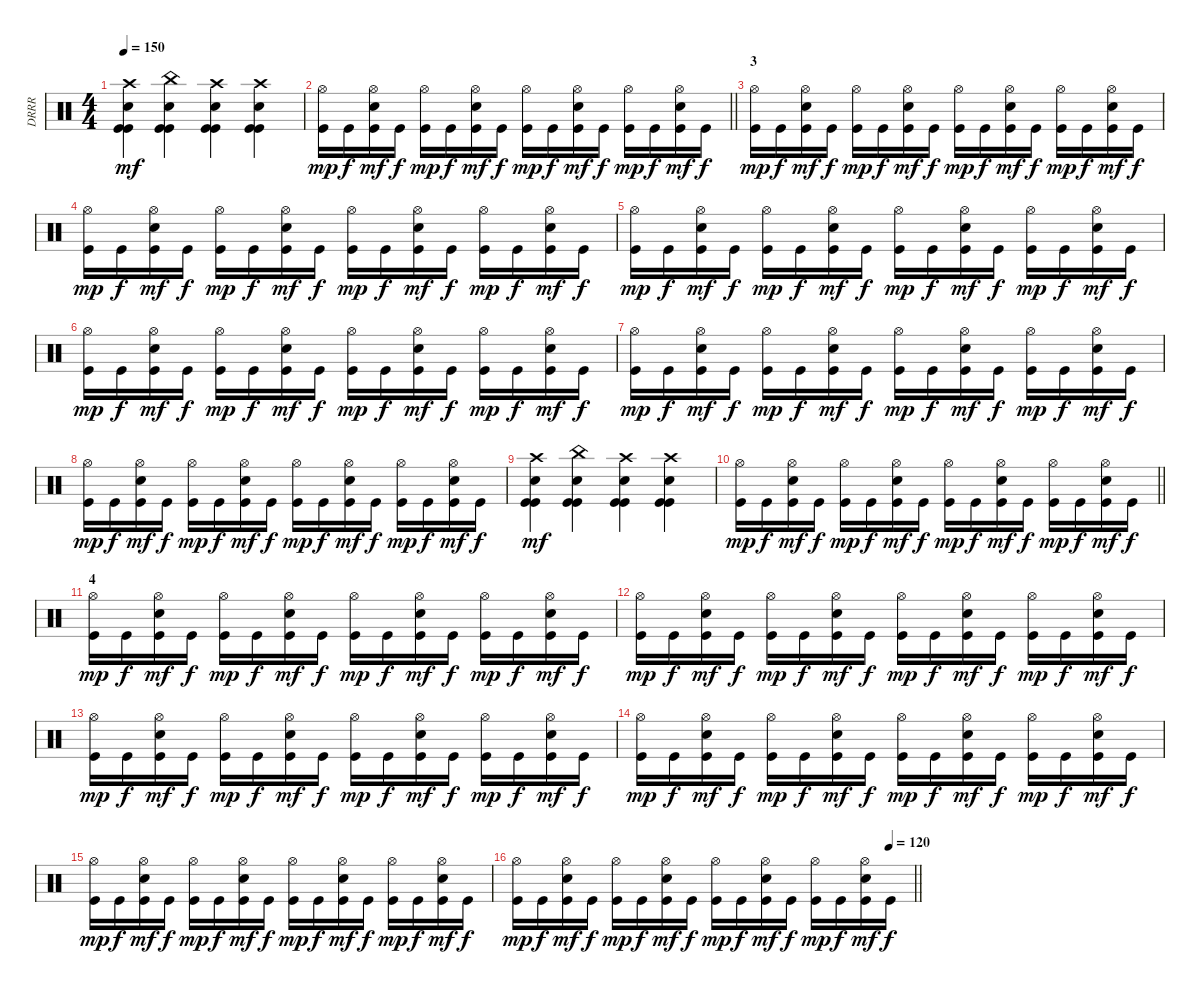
\track ("DRRR" "DRRR") {instrument percussion}
\staff {score}
\articulation defaults
\ts (4 4)
\tempo 150
\clef neutral
\ks c
("Crash high (hit)" "Snare (hit) 2" "Kick (hit)" "Kick (hit)").4{dy mf} ("China (hit)" "Snare (hit) 2" "Kick (hit)" "Kick (hit)").4 ("Crash high (hit)" "Snare (hit) 2" "Kick (hit)" "Kick (hit)").4 ("Crash high (hit)" "Snare (hit) 2" "Kick (hit)" "Kick (hit)").4 |
\barLineRight lightlight
("Hi-Hat (open)" "Kick (hit)").16{dy mp} "Kick (hit)".16{dy f} ("Hi-Hat (open)" "Snare (hit) 2" "Kick (hit)").16{dy mf} "Kick (hit)".16{dy f} ("Hi-Hat (open)" "Kick (hit)").16{dy mp} "Kick (hit)".16{dy f} ("Hi-Hat (open)" "Snare (hit) 2" "Kick (hit)").16{dy mf} "Kick (hit)".16{dy f} ("Hi-Hat (open)" "Kick (hit)").16{dy mp} "Kick (hit)".16{dy f} ("Hi-Hat (open)" "Snare (hit) 2" "Kick (hit)").16{dy mf} "Kick (hit)".16{dy f} ("Hi-Hat (open)" "Kick (hit)").16{dy mp} "Kick (hit)".16{dy f} ("Hi-Hat (open)" "Snare (hit) 2" "Kick (hit)").16{dy mf} "Kick (hit)".16{dy f} |
\section ("" "3")
("Hi-Hat (open)" "Kick (hit)").16{dy mp} "Kick (hit)".16{dy f} ("Hi-Hat (open)" "Snare (hit) 2" "Kick (hit)").16{dy mf} "Kick (hit)".16{dy f} ("Hi-Hat (open)" "Kick (hit)").16{dy mp} "Kick (hit)".16{dy f} ("Hi-Hat (open)" "Snare (hit) 2" "Kick (hit)").16{dy mf} "Kick (hit)".16{dy f} ("Hi-Hat (open)" "Kick (hit)").16{dy mp} "Kick (hit)".16{dy f} ("Hi-Hat (open)" "Snare (hit) 2" "Kick (hit)").16{dy mf} "Kick (hit)".16{dy f} ("Hi-Hat (open)" "Kick (hit)").16{dy mp} "Kick (hit)".16{dy f} ("Hi-Hat (open)" "Snare (hit) 2" "Kick (hit)").16{dy mf} "Kick (hit)".16{dy f} |
("Hi-Hat (open)" "Kick (hit)").16{dy mp} "Kick (hit)".16{dy f} ("Hi-Hat (open)" "Snare (hit) 2" "Kick (hit)").16{dy mf} "Kick (hit)".16{dy f} ("Hi-Hat (open)" "Kick (hit)").16{dy mp} "Kick (hit)".16{dy f} ("Hi-Hat (open)" "Snare (hit) 2" "Kick (hit)").16{dy mf} "Kick (hit)".16{dy f} ("Hi-Hat (open)" "Kick (hit)").16{dy mp} "Kick (hit)".16{dy f} ("Hi-Hat (open)" "Snare (hit) 2" "Kick (hit)").16{dy mf} "Kick (hit)".16{dy f} ("Hi-Hat (open)" "Kick (hit)").16{dy mp} "Kick (hit)".16{dy f} ("Hi-Hat (open)" "Snare (hit) 2" "Kick (hit)").16{dy mf} "Kick (hit)".16{dy f} |
("Hi-Hat (open)" "Kick (hit)").16{dy mp} "Kick (hit)".16{dy f} ("Hi-Hat (open)" "Snare (hit) 2" "Kick (hit)").16{dy mf} "Kick (hit)".16{dy f} ("Hi-Hat (open)" "Kick (hit)").16{dy mp} "Kick (hit)".16{dy f} ("Hi-Hat (open)" "Snare (hit) 2" "Kick (hit)").16{dy mf} "Kick (hit)".16{dy f} ("Hi-Hat (open)" "Kick (hit)").16{dy mp} "Kick (hit)".16{dy f} ("Hi-Hat (open)" "Snare (hit) 2" "Kick (hit)").16{dy mf} "Kick (hit)".16{dy f} ("Hi-Hat (open)" "Kick (hit)").16{dy mp} "Kick (hit)".16{dy f} ("Hi-Hat (open)" "Snare (hit) 2" "Kick (hit)").16{dy mf} "Kick (hit)".16{dy f} |
("Hi-Hat (open)" "Kick (hit)").16{dy mp} "Kick (hit)".16{dy f} ("Hi-Hat (open)" "Snare (hit) 2" "Kick (hit)").16{dy mf} "Kick (hit)".16{dy f} ("Hi-Hat (open)" "Kick (hit)").16{dy mp} "Kick (hit)".16{dy f} ("Hi-Hat (open)" "Snare (hit) 2" "Kick (hit)").16{dy mf} "Kick (hit)".16{dy f} ("Hi-Hat (open)" "Kick (hit)").16{dy mp} "Kick (hit)".16{dy f} ("Hi-Hat (open)" "Snare (hit) 2" "Kick (hit)").16{dy mf} "Kick (hit)".16{dy f} ("Hi-Hat (open)" "Kick (hit)").16{dy mp} "Kick (hit)".16{dy f} ("Hi-Hat (open)" "Snare (hit) 2" "Kick (hit)").16{dy mf} "Kick (hit)".16{dy f} |
("Hi-Hat (open)" "Kick (hit)").16{dy mp} "Kick (hit)".16{dy f} ("Hi-Hat (open)" "Snare (hit) 2" "Kick (hit)").16{dy mf} "Kick (hit)".16{dy f} ("Hi-Hat (open)" "Kick (hit)").16{dy mp} "Kick (hit)".16{dy f} ("Hi-Hat (open)" "Snare (hit) 2" "Kick (hit)").16{dy mf} "Kick (hit)".16{dy f} ("Hi-Hat (open)" "Kick (hit)").16{dy mp} "Kick (hit)".16{dy f} ("Hi-Hat (open)" "Snare (hit) 2" "Kick (hit)").16{dy mf} "Kick (hit)".16{dy f} ("Hi-Hat (open)" "Kick (hit)").16{dy mp} "Kick (hit)".16{dy f} ("Hi-Hat (open)" "Snare (hit) 2" "Kick (hit)").16{dy mf} "Kick (hit)".16{dy f} |
("Hi-Hat (open)" "Kick (hit)").16{dy mp} "Kick (hit)".16{dy f} ("Hi-Hat (open)" "Snare (hit) 2" "Kick (hit)").16{dy mf} "Kick (hit)".16{dy f} ("Hi-Hat (open)" "Kick (hit)").16{dy mp} "Kick (hit)".16{dy f} ("Hi-Hat (open)" "Snare (hit) 2" "Kick (hit)").16{dy mf} "Kick (hit)".16{dy f} ("Hi-Hat (open)" "Kick (hit)").16{dy mp} "Kick (hit)".16{dy f} ("Hi-Hat (open)" "Snare (hit) 2" "Kick (hit)").16{dy mf} "Kick (hit)".16{dy f} ("Hi-Hat (open)" "Kick (hit)").16{dy mp} "Kick (hit)".16{dy f} ("Hi-Hat (open)" "Snare (hit) 2" "Kick (hit)").16{dy mf} "Kick (hit)".16{dy f} |
("Crash high (hit)" "Snare (hit) 2" "Kick (hit)" "Kick (hit)").4{dy mf} ("China (hit)" "Snare (hit) 2" "Kick (hit)" "Kick (hit)").4 ("Crash high (hit)" "Snare (hit) 2" "Kick (hit)" "Kick (hit)").4 ("Crash high (hit)" "Snare (hit) 2" "Kick (hit)" "Kick (hit)").4 |
\barLineRight lightlight
("Hi-Hat (open)" "Kick (hit)").16{dy mp} "Kick (hit)".16{dy f} ("Hi-Hat (open)" "Snare (hit) 2" "Kick (hit)").16{dy mf} "Kick (hit)".16{dy f} ("Hi-Hat (open)" "Kick (hit)").16{dy mp} "Kick (hit)".16{dy f} ("Hi-Hat (open)" "Snare (hit) 2" "Kick (hit)").16{dy mf} "Kick (hit)".16{dy f} ("Hi-Hat (open)" "Kick (hit)").16{dy mp} "Kick (hit)".16{dy f} ("Hi-Hat (open)" "Snare (hit) 2" "Kick (hit)").16{dy mf} "Kick (hit)".16{dy f} ("Hi-Hat (open)" "Kick (hit)").16{dy mp} "Kick (hit)".16{dy f} ("Hi-Hat (open)" "Snare (hit) 2" "Kick (hit)").16{dy mf} "Kick (hit)".16{dy f} |
\section ("" "4")
("Hi-Hat (open)" "Kick (hit)").16{dy mp} "Kick (hit)".16{dy f} ("Hi-Hat (open)" "Snare (hit) 2" "Kick (hit)").16{dy mf} "Kick (hit)".16{dy f} ("Hi-Hat (open)" "Kick (hit)").16{dy mp} "Kick (hit)".16{dy f} ("Hi-Hat (open)" "Snare (hit) 2" "Kick (hit)").16{dy mf} "Kick (hit)".16{dy f} ("Hi-Hat (open)" "Kick (hit)").16{dy mp} "Kick (hit)".16{dy f} ("Hi-Hat (open)" "Snare (hit) 2" "Kick (hit)").16{dy mf} "Kick (hit)".16{dy f} ("Hi-Hat (open)" "Kick (hit)").16{dy mp} "Kick (hit)".16{dy f} ("Hi-Hat (open)" "Snare (hit) 2" "Kick (hit)").16{dy mf} "Kick (hit)".16{dy f} |
("Hi-Hat (open)" "Kick (hit)").16{dy mp} "Kick (hit)".16{dy f} ("Hi-Hat (open)" "Snare (hit) 2" "Kick (hit)").16{dy mf} "Kick (hit)".16{dy f} ("Hi-Hat (open)" "Kick (hit)").16{dy mp} "Kick (hit)".16{dy f} ("Hi-Hat (open)" "Snare (hit) 2" "Kick (hit)").16{dy mf} "Kick (hit)".16{dy f} ("Hi-Hat (open)" "Kick (hit)").16{dy mp} "Kick (hit)".16{dy f} ("Hi-Hat (open)" "Snare (hit) 2" "Kick (hit)").16{dy mf} "Kick (hit)".16{dy f} ("Hi-Hat (open)" "Kick (hit)").16{dy mp} "Kick (hit)".16{dy f} ("Hi-Hat (open)" "Snare (hit) 2" "Kick (hit)").16{dy mf} "Kick (hit)".16{dy f} |
("Hi-Hat (open)" "Kick (hit)").16{dy mp} "Kick (hit)".16{dy f} ("Hi-Hat (open)" "Snare (hit) 2" "Kick (hit)").16{dy mf} "Kick (hit)".16{dy f} ("Hi-Hat (open)" "Kick (hit)").16{dy mp} "Kick (hit)".16{dy f} ("Hi-Hat (open)" "Snare (hit) 2" "Kick (hit)").16{dy mf} "Kick (hit)".16{dy f} ("Hi-Hat (open)" "Kick (hit)").16{dy mp} "Kick (hit)".16{dy f} ("Hi-Hat (open)" "Snare (hit) 2" "Kick (hit)").16{dy mf} "Kick (hit)".16{dy f} ("Hi-Hat (open)" "Kick (hit)").16{dy mp} "Kick (hit)".16{dy f} ("Hi-Hat (open)" "Snare (hit) 2" "Kick (hit)").16{dy mf} "Kick (hit)".16{dy f} |
("Hi-Hat (open)" "Kick (hit)").16{dy mp} "Kick (hit)".16{dy f} ("Hi-Hat (open)" "Snare (hit) 2" "Kick (hit)").16{dy mf} "Kick (hit)".16{dy f} ("Hi-Hat (open)" "Kick (hit)").16{dy mp} "Kick (hit)".16{dy f} ("Hi-Hat (open)" "Snare (hit) 2" "Kick (hit)").16{dy mf} "Kick (hit)".16{dy f} ("Hi-Hat (open)" "Kick (hit)").16{dy mp} "Kick (hit)".16{dy f} ("Hi-Hat (open)" "Snare (hit) 2" "Kick (hit)").16{dy mf} "Kick (hit)".16{dy f} ("Hi-Hat (open)" "Kick (hit)").16{dy mp} "Kick (hit)".16{dy f} ("Hi-Hat (open)" "Snare (hit) 2" "Kick (hit)").16{dy mf} "Kick (hit)".16{dy f} |
("Hi-Hat (open)" "Kick (hit)").16{dy mp} "Kick (hit)".16{dy f} ("Hi-Hat (open)" "Snare (hit) 2" "Kick (hit)").16{dy mf} "Kick (hit)".16{dy f} ("Hi-Hat (open)" "Kick (hit)").16{dy mp} "Kick (hit)".16{dy f} ("Hi-Hat (open)" "Snare (hit) 2" "Kick (hit)").16{dy mf} "Kick (hit)".16{dy f} ("Hi-Hat (open)" "Kick (hit)").16{dy mp} "Kick (hit)".16{dy f} ("Hi-Hat (open)" "Snare (hit) 2" "Kick (hit)").16{dy mf} "Kick (hit)".16{dy f} ("Hi-Hat (open)" "Kick (hit)").16{dy mp} "Kick (hit)".16{dy f} ("Hi-Hat (open)" "Snare (hit) 2" "Kick (hit)").16{dy mf} "Kick (hit)".16{dy f} |
\tempo (120 0.9375)
\barLineRight lightlight
("Hi-Hat (open)" "Kick (hit)").16{dy mp} "Kick (hit)".16{dy f} ("Hi-Hat (open)" "Snare (hit) 2" "Kick (hit)").16{dy mf} "Kick (hit)".16{dy f} ("Hi-Hat (open)" "Kick (hit)").16{dy mp} "Kick (hit)".16{dy f} ("Hi-Hat (open)" "Snare (hit) 2" "Kick (hit)").16{dy mf} "Kick (hit)".16{dy f} ("Hi-Hat (open)" "Kick (hit)").16{dy mp} "Kick (hit)".16{dy f} ("Hi-Hat (open)" "Snare (hit) 2" "Kick (hit)").16{dy mf} "Kick (hit)".16{dy f} ("Hi-Hat (open)" "Kick (hit)").16{dy mp} "Kick (hit)".16{dy f} ("Hi-Hat (open)" "Snare (hit) 2" "Kick (hit)").16{dy mf} "Kick (hit)".16{dy f}
